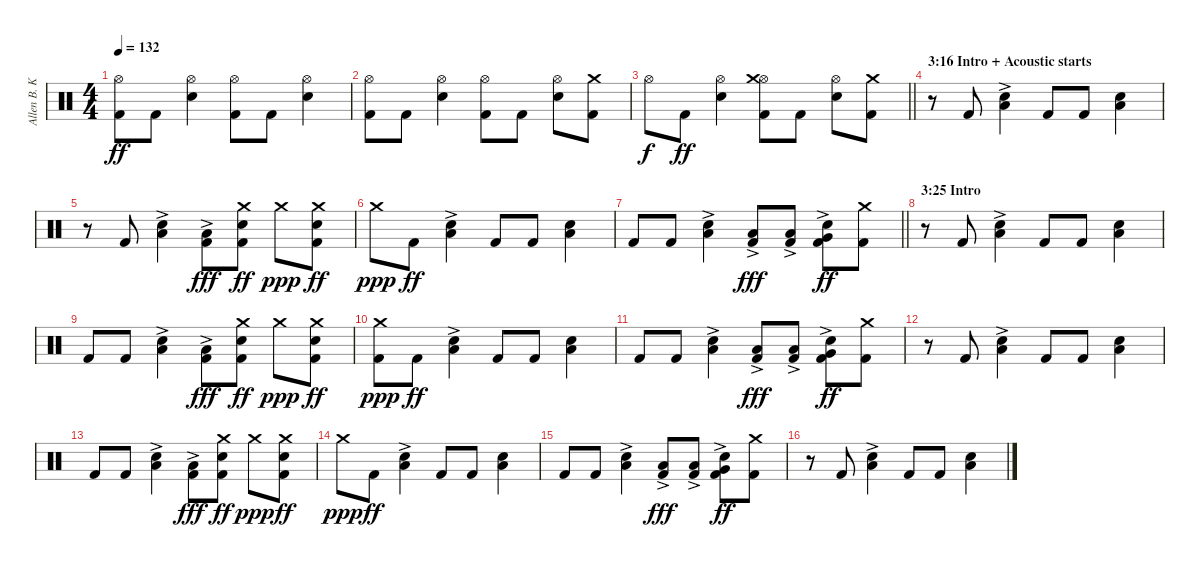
\track ("Allen B. Konstanz (Drums)" "Allen B. K") {instrument percussion}
\staff {score}
\articulation defaults
\ts (4 4)
\tempo 132
\clef neutral
\ks c
("Kick (hit) 2" "Hi-Hat (open)").8{dy ff} "Kick (hit) 2".8 ("Electric Snare (hit)" "Hi-Hat (open)").4 ("Kick (hit) 2" "Hi-Hat (open)").8 "Kick (hit) 2".8 ("Electric Snare (hit)" "Hi-Hat (open)").4 |
("Kick (hit) 2" "Hi-Hat (open)").8 "Kick (hit) 2".8 ("Electric Snare (hit)" "Hi-Hat (open)").4 ("Kick (hit) 2" "Hi-Hat (open)").8 "Kick (hit) 2".8 ("Electric Snare (hit)" "Hi-Hat (open)").8 ("Kick (hit) 2" "Crash medium (hit)").8 |
\barLineRight lightlight "Hi-Hat (open)".8{dy f} "Kick (hit) 2".8{dy ff}
("Electric Snare (hit)" "Hi-Hat (open)").4 ("Kick (hit) 2" "Hi-Hat (open)" "Crash medium (hit)").8 "Kick (hit) 2".8 ("Electric Snare (hit)" "Hi-Hat (open)").8 ("Kick (hit) 2" "Crash medium (hit)").8 |
\section ("" "3:16 Intro + Acoustic starts")
r.8 "Kick (hit) 2".8 ("Low Floor Tom (hit)"{ac} "Electric Snare (hit)").4 "Kick (hit) 2".8 "Kick (hit) 2".8 ("Low Floor Tom (hit)" "Electric Snare (hit)").4 |
r.8 "Kick (hit) 2".8 ("Low Floor Tom (hit)"{ac} "Electric Snare (hit)").4 ("Kick (hit) 2" "Low Floor Tom (hit)"{ac}).8{dy fff} ("Kick (hit) 2" "Electric Snare (hit)" "Crash medium (hit)").8{dy ff} "Crash medium (hit)".8{dy ppp} ("Kick (hit) 2" "Electric Snare (hit)" "Crash medium (hit)").8{dy ff} |
"Crash medium (hit)".8{dy ppp} "Kick (hit) 2".8{dy ff} ("Low Floor Tom (hit)"{ac} "Electric Snare (hit)").4 "Kick (hit) 2".8 "Kick (hit) 2".8 ("Low Floor Tom (hit)" "Electric Snare (hit)").4 |
\barLineRight lightlight "Kick (hit) 2".8 "Kick (hit) 2".8
("Low Floor Tom (hit)"{ac} "Electric Snare (hit)").4 ("Kick (hit) 2" "Low Floor Tom (hit)"{ac}).8{dy fff} ("Kick (hit) 2" "Low Floor Tom (hit)"{ac}).8 ("Kick (hit) 2" "Very Low Tom (hit)"{ac} "Electric Snare (hit)").8{dy ff} ("Kick (hit) 2" "Crash medium (hit)").8 |
\section ("" "3:25 Intro")
r.8 "Kick (hit) 2".8 ("Low Floor Tom (hit)"{ac} "Electric Snare (hit)").4 "Kick (hit) 2".8 "Kick (hit) 2".8 ("Low Floor Tom (hit)" "Electric Snare (hit)").4 |
"Kick (hit) 2".8 "Kick (hit) 2".8 ("Low Floor Tom (hit)"{ac} "Electric Snare (hit)").4 ("Kick (hit) 2" "Low Floor Tom (hit)"{ac}).8{dy fff} ("Kick (hit) 2" "Electric Snare (hit)" "Crash medium (hit)").8{dy ff} "Crash medium (hit)".8{dy ppp} ("Kick (hit) 2" "Electric Snare (hit)" "Crash medium (hit)").8{dy ff} |
("Kick (hit) 2" "Crash medium (hit)").8{dy ppp} "Kick (hit) 2".8{dy ff} ("Low Floor Tom (hit)"{ac} "Electric Snare (hit)").4 "Kick (hit) 2".8 "Kick (hit) 2".8 ("Low Floor Tom (hit)" "Electric Snare (hit)").4 |
"Kick (hit) 2".8 "Kick (hit) 2".8 ("Low Floor Tom (hit)"{ac} "Electric Snare (hit)").4 ("Kick (hit) 2" "Low Floor Tom (hit)"{ac}).8{dy fff} ("Kick (hit) 2" "Low Floor Tom (hit)"{ac}).8 ("Kick (hit) 2" "Very Low Tom (hit)"{ac} "Electric Snare (hit)").8{dy ff} ("Kick (hit) 2" "Crash medium (hit)").8 |
r.8 "Kick (hit) 2".8 ("Low Floor Tom (hit)"{ac} "Electric Snare (hit)").4 "Kick (hit) 2".8 "Kick (hit) 2".8 ("Low Floor Tom (hit)" "Electric Snare (hit)").4 |
"Kick (hit) 2".8 "Kick (hit) 2".8 ("Low Floor Tom (hit)"{ac} "Electric Snare (hit)").4 ("Kick (hit) 2" "Low Floor Tom (hit)"{ac}).8{dy fff} ("Kick (hit) 2" "Electric Snare (hit)" "Crash medium (hit)").8{dy ff} "Crash medium (hit)".8{dy ppp} ("Kick (hit) 2" "Electric Snare (hit)" "Crash medium (hit)").8{dy ff} |
"Crash medium (hit)".8{dy ppp} "Kick (hit) 2".8{dy ff} ("Low Floor Tom (hit)"{ac} "Electric Snare (hit)").4 "Kick (hit) 2".8 "Kick (hit) 2".8 ("Low Floor Tom (hit)" "Electric Snare (hit)").4 |
"Kick (hit) 2".8 "Kick (hit) 2".8 ("Low Floor Tom (hit)"{ac} "Electric Snare (hit)").4 ("Kick (hit) 2" "Low Floor Tom (hit)"{ac}).8{dy fff} ("Kick (hit) 2" "Low Floor Tom (hit)"{ac}).8 ("Kick (hit) 2" "Very Low Tom (hit)"{ac} "Electric Snare (hit)").8{dy ff} ("Kick (hit) 2" "Crash medium (hit)").8 |
r.8 "Kick (hit) 2".8 ("Low Floor Tom (hit)"{ac} "Electric Snare (hit)").4 "Kick (hit) 2".8 "Kick (hit) 2".8 ("Low Floor Tom (hit)" "Electric Snare (hit)").4
